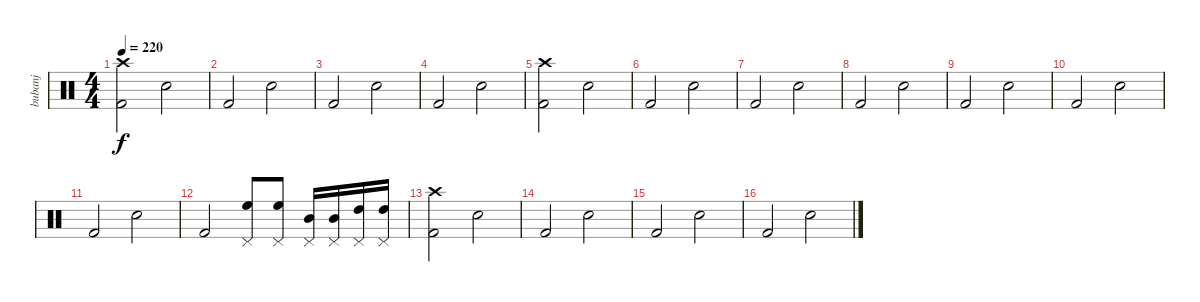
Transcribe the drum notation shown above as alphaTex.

\track ("bubanj" "bubanj") {instrument percussion}
\staff {score}
\articulation defaults
\ts (4 4)
\tempo 220
\clef neutral
\ks c
("Kick (hit) 2" "Crash high (hit)").2{dy f} "Snare (hit) 2".2 |
"Kick (hit) 2".2 "Snare (hit) 2".2 |
"Kick (hit) 2".2 "Snare (hit) 2".2 |
"Kick (hit) 2".2 "Snare (hit) 2".2 |
("Kick (hit) 2" "Crash high (hit)").2 "Snare (hit) 2".2 |
"Kick (hit) 2".2 "Snare (hit) 2".2 |
"Kick (hit) 2".2 "Snare (hit) 2".2 |
"Kick (hit) 2".2 "Snare (hit) 2".2 |
"Kick (hit) 2".2 "Snare (hit) 2".2 |
"Kick (hit) 2".2 "Snare (hit) 2".2 |
"Kick (hit) 2".2 "Snare (hit) 2".2 |
"Kick (hit) 2".2 ("High Floor Tom (hit)" "Pedal Hi-Hat (hit)").8 ("High Floor Tom (hit)" "Pedal Hi-Hat (hit)").8 ("Mid Tom (hit)" "Pedal Hi-Hat (hit)").16 ("Mid Tom (hit)" "Pedal Hi-Hat (hit)").16 ("High Tom (hit)" "Pedal Hi-Hat (hit)").16 ("High Tom (hit)" "Pedal Hi-Hat (hit)").16 |
("Kick (hit) 2" "Crash high (hit)").2 "Snare (hit) 2".2 |
"Kick (hit) 2".2 "Snare (hit) 2".2 |
"Kick (hit) 2".2 "Snare (hit) 2".2 |
"Kick (hit) 2".2 "Snare (hit) 2".2
